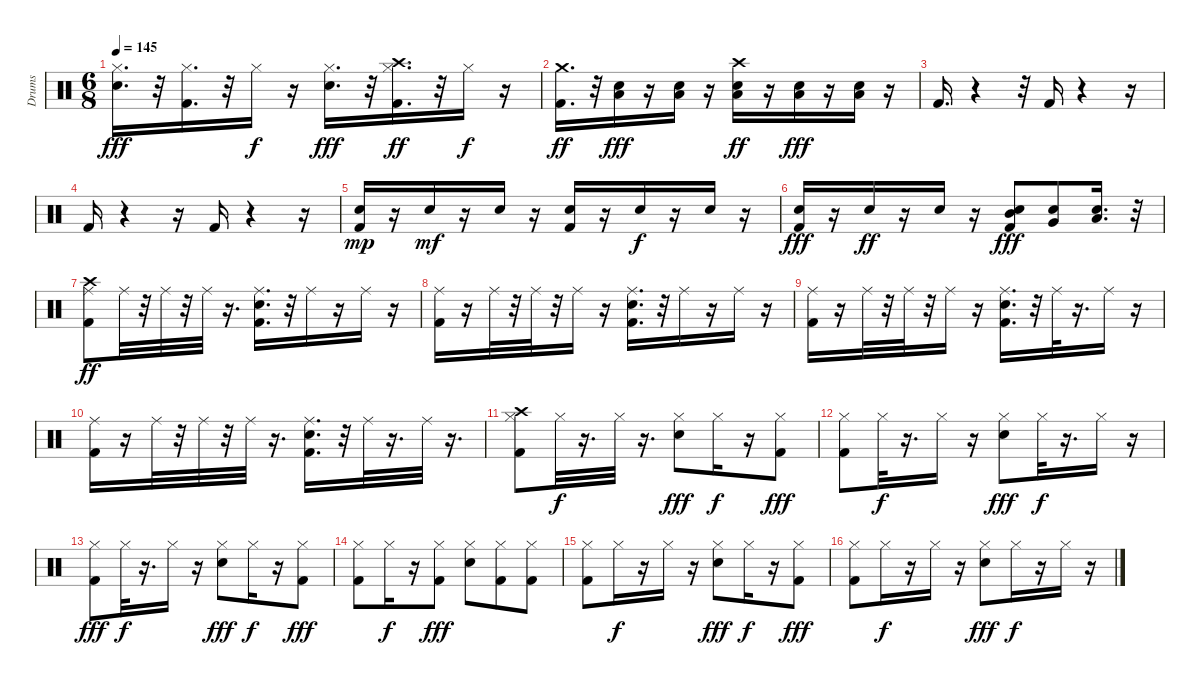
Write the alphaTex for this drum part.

\track ("Drums" "Drums") {instrument percussion}
\staff {score}
\articulation defaults
\ts (6 8)
\tempo 145
\clef neutral
\ks c
("Snare (hit) 2" "Hi-Hat (closed)").16{d dy fff} r.32 ("Kick (hit) 2" "Hi-Hat (closed)").16{d} r.32 "Hi-Hat (closed)".16{dy f} r.16 ("Snare (hit) 2" "Hi-Hat (closed)").16{d dy fff} r.32 ("Kick (hit) 2" "Hi-Hat (closed)" "Crash high (hit)").16{d dy ff} r.32 "Hi-Hat (closed)".16{dy f} r.16 |
("Kick (hit) 2" "Crash medium (hit)").16{d dy ff} r.32 ("Snare (hit) 2" "Low Tom (hit)").16{dy fff} r.16 ("Snare (hit) 2" "Low Tom (hit)").16 r.16 ("Snare (hit) 2" "Low Floor Tom (hit)" "Crash high (hit)").16{dy ff} r.16 ("Snare (hit) 2" "Low Floor Tom (hit)").16{dy fff} r.16 ("Snare (hit) 2" "Low Floor Tom (hit)").16 r.16 |
"Kick (hit) 2".16{d} r.4 r.32 "Kick (hit) 2".16 r.4 r.16 |
"Kick (hit) 2".16 r.4 r.16 "Kick (hit) 2".16 r.4 r.16 |
("Kick (hit) 2" "Snare (hit) 2").16{dy mp} r.16 "Snare (hit) 2".16{dy mf} r.16 "Snare (hit) 2".16 r.16 ("Kick (hit) 2" "Snare (hit) 2").16 r.16 "Snare (hit) 2".16{dy f} r.16 "Snare (hit) 2".16 r.16 |
("Kick (hit) 2" "Snare (hit) 2").16{dy fff} r.16 "Snare (hit) 2".16{dy ff} r.16 "Snare (hit) 2".16 r.16 ("Kick (hit) 2" "Snare (hit) 2" "Mid Tom (hit)").8{dy fff} ("Snare (hit) 2" "Very Low Tom (hit)").8 ("Snare (hit) 2" "Low Floor Tom (hit)").16{d} r.32 |
("Kick (hit) 2" "Ride (middle)" "Crash high (hit)").8{dy ff} "Ride (middle)".32 r.32 "Ride (middle)".32 r.32 "Ride (middle)".32 r.16{d} ("Kick (hit) 2" "Snare (hit) 2" "Ride (middle)").16{d} r.32 "Ride (middle)".16 r.16 "Ride (middle)".16 r.16 |
("Kick (hit) 2" "Ride (middle)").16 r.16 "Ride (middle)".32 r.32 "Ride (middle)".32 r.32 "Ride (middle)".16 r.16 ("Kick (hit) 2" "Snare (hit) 2" "Ride (middle)").16{d} r.32 "Ride (middle)".16 r.16 "Ride (middle)".16 r.16 |
("Kick (hit) 2" "Ride (middle)").16 r.16 "Ride (middle)".32 r.32 "Ride (middle)".32 r.32 "Ride (middle)".16 r.16 ("Kick (hit) 2" "Snare (hit) 2" "Ride (middle)").16{d} r.32 "Ride (middle)".32 r.16{d} "Ride (middle)".16 r.16 |
("Kick (hit) 2" "Ride (middle)").16 r.16 "Ride (middle)".32 r.32 "Ride (middle)".32 r.32 "Ride (middle)".32 r.16{d} ("Kick (hit) 2" "Snare (hit) 2" "Ride (middle)").16{d} r.32 "Ride (middle)".32 r.16{d} "Ride (middle)".32 r.16{d} |
("Kick (hit) 2" "Hi-Hat (closed)" "Crash high (hit)").8 "Hi-Hat (closed)".32{dy f} r.16{d} "Hi-Hat (closed)".32 r.16{d} ("Snare (hit) 2" "Hi-Hat (closed)").8{dy fff} "Hi-Hat (closed)".16{dy f} r.16 ("Kick (hit) 2" "Hi-Hat (closed)").8{dy fff} |
("Kick (hit) 2" "Hi-Hat (closed)").8 "Hi-Hat (closed)".32{dy f} r.16{d} "Hi-Hat (closed)".16 r.16 ("Snare (hit) 2" "Hi-Hat (closed)").8{dy fff} "Hi-Hat (closed)".32{dy f} r.16{d} "Hi-Hat (closed)".16 r.16 |
("Kick (hit) 2" "Hi-Hat (closed)").8{dy fff} "Hi-Hat (closed)".32{dy f} r.16{d} "Hi-Hat (closed)".16 r.16 ("Snare (hit) 2" "Hi-Hat (closed)").8{dy fff} "Hi-Hat (closed)".16{dy f} r.16 ("Kick (hit) 2" "Hi-Hat (closed)").8{dy fff} |
("Kick (hit) 2" "Hi-Hat (closed)").8 "Hi-Hat (closed)".16{dy f} r.16 ("Kick (hit) 2" "Hi-Hat (closed)").8{dy fff} ("Snare (hit) 2" "Hi-Hat (closed)").8 ("Kick (hit) 2" "Hi-Hat (closed)").8 ("Kick (hit) 2" "Hi-Hat (closed)").8 |
("Kick (hit) 2" "Hi-Hat (closed)").8 "Hi-Hat (closed)".16{dy f} r.16 "Hi-Hat (closed)".16 r.16 ("Snare (hit) 2" "Hi-Hat (closed)").8{dy fff} "Hi-Hat (closed)".16{dy f} r.16 ("Kick (hit) 2" "Hi-Hat (closed)").8{dy fff} |
("Kick (hit) 2" "Hi-Hat (closed)").8 "Hi-Hat (closed)".16{dy f} r.16 "Hi-Hat (closed)".16 r.16 ("Snare (hit) 2" "Hi-Hat (closed)").8{dy fff} "Hi-Hat (closed)".16{dy f} r.16 "Hi-Hat (closed)".16 r.16
